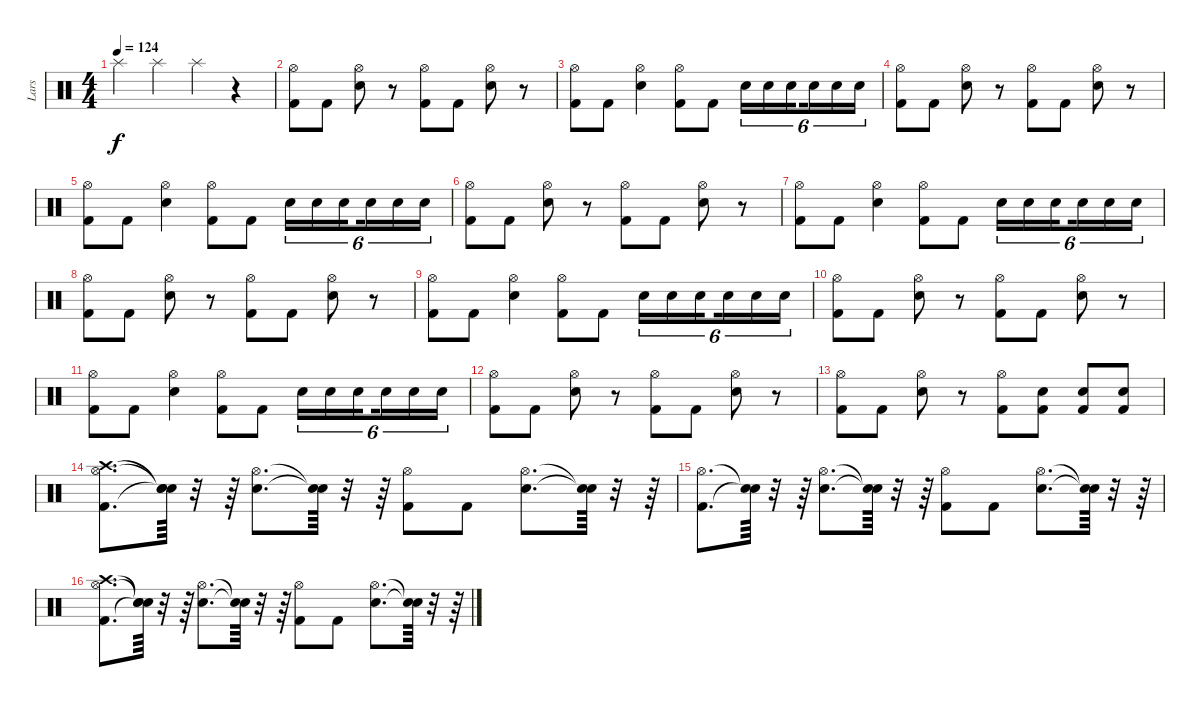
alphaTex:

\track ("Lars" "Lars") {instrument percussion}
\staff {score}
\articulation defaults
\ts (4 4)
\tempo 124
\clef neutral
\ks c "Splash (hit)".4{dy f} "Splash (hit)".4 "Splash (hit)".4
r.4 |
("Kick (hit) 2" "Hi-Hat (open)").8 "Kick (hit) 2".8 ("Snare (hit) 2" "Hi-Hat (open)").8 r.8 ("Kick (hit) 2" "Hi-Hat (open)").8 "Kick (hit) 2".8 ("Snare (hit) 2" "Hi-Hat (open)").8 r.8 |
("Kick (hit) 2" "Hi-Hat (open)").8 "Kick (hit) 2".8 ("Snare (hit) 2" "Hi-Hat (open)").4 ("Kick (hit) 2" "Hi-Hat (open)").8 "Kick (hit) 2".8 "Snare (hit) 2".16{tu (6 4)} "Snare (hit) 2".16{tu (6 4)} "Snare (hit) 2".16{tu (6 4) beam splitsecondary} "Snare (hit) 2".16{tu (6 4)} "Snare (hit) 2".16{tu (6 4)} "Snare (hit) 2".16{tu (6 4)} |
("Kick (hit) 2" "Hi-Hat (open)").8 "Kick (hit) 2".8 ("Snare (hit) 2" "Hi-Hat (open)").8 r.8 ("Kick (hit) 2" "Hi-Hat (open)").8 "Kick (hit) 2".8 ("Snare (hit) 2" "Hi-Hat (open)").8 r.8 |
("Kick (hit) 2" "Hi-Hat (open)").8 "Kick (hit) 2".8 ("Snare (hit) 2" "Hi-Hat (open)").4 ("Kick (hit) 2" "Hi-Hat (open)").8 "Kick (hit) 2".8 "Snare (hit) 2".16{tu (6 4)} "Snare (hit) 2".16{tu (6 4)} "Snare (hit) 2".16{tu (6 4) beam splitsecondary} "Snare (hit) 2".16{tu (6 4)} "Snare (hit) 2".16{tu (6 4)} "Snare (hit) 2".16{tu (6 4)} |
("Kick (hit) 2" "Hi-Hat (open)").8 "Kick (hit) 2".8 ("Snare (hit) 2" "Hi-Hat (open)").8 r.8 ("Kick (hit) 2" "Hi-Hat (open)").8 "Kick (hit) 2".8 ("Snare (hit) 2" "Hi-Hat (open)").8 r.8 |
("Kick (hit) 2" "Hi-Hat (open)").8 "Kick (hit) 2".8 ("Snare (hit) 2" "Hi-Hat (open)").4 ("Kick (hit) 2" "Hi-Hat (open)").8 "Kick (hit) 2".8 "Snare (hit) 2".16{tu (6 4)} "Snare (hit) 2".16{tu (6 4)} "Snare (hit) 2".16{tu (6 4) beam splitsecondary} "Snare (hit) 2".16{tu (6 4)} "Snare (hit) 2".16{tu (6 4)} "Snare (hit) 2".16{tu (6 4)} |
("Kick (hit) 2" "Hi-Hat (open)").8 "Kick (hit) 2".8 ("Snare (hit) 2" "Hi-Hat (open)").8 r.8 ("Kick (hit) 2" "Hi-Hat (open)").8 "Kick (hit) 2".8 ("Snare (hit) 2" "Hi-Hat (open)").8 r.8 |
("Kick (hit) 2" "Hi-Hat (open)").8 "Kick (hit) 2".8 ("Snare (hit) 2" "Hi-Hat (open)").4 ("Kick (hit) 2" "Hi-Hat (open)").8 "Kick (hit) 2".8 "Snare (hit) 2".16{tu (6 4)} "Snare (hit) 2".16{tu (6 4)} "Snare (hit) 2".16{tu (6 4) beam splitsecondary} "Snare (hit) 2".16{tu (6 4)} "Snare (hit) 2".16{tu (6 4)} "Snare (hit) 2".16{tu (6 4)} |
("Kick (hit) 2" "Hi-Hat (open)").8 "Kick (hit) 2".8 ("Snare (hit) 2" "Hi-Hat (open)").8 r.8 ("Kick (hit) 2" "Hi-Hat (open)").8 "Kick (hit) 2".8 ("Snare (hit) 2" "Hi-Hat (open)").8 r.8 |
("Kick (hit) 2" "Hi-Hat (open)").8 "Kick (hit) 2".8 ("Snare (hit) 2" "Hi-Hat (open)").4 ("Kick (hit) 2" "Hi-Hat (open)").8 "Kick (hit) 2".8 "Snare (hit) 2".16{tu (6 4)} "Snare (hit) 2".16{tu (6 4)} "Snare (hit) 2".16{tu (6 4) beam splitsecondary} "Snare (hit) 2".16{tu (6 4)} "Snare (hit) 2".16{tu (6 4)} "Snare (hit) 2".16{tu (6 4)} |
("Kick (hit) 2" "Hi-Hat (open)").8 "Kick (hit) 2".8 ("Snare (hit) 2" "Hi-Hat (open)").8 r.8 ("Kick (hit) 2" "Hi-Hat (open)").8 "Kick (hit) 2".8 ("Snare (hit) 2" "Hi-Hat (open)").8 r.8 |
("Kick (hit) 2" "Hi-Hat (open)").8 "Kick (hit) 2".8 ("Snare (hit) 2" "Hi-Hat (open)").8 r.8 ("Kick (hit) 2" "Hi-Hat (open)").8 ("Kick (hit) 2" "Snare (hit) 2").8 ("Kick (hit) 2" "Snare (hit) 2").8 ("Kick (hit) 2" "Snare (hit) 2").8 |
("Kick (hit) 2" "Hi-Hat (open)" "Crash high (hit)").8{d} ("Snare (hit)"{t} "Snare (hit)"{t} "Snare (hit)"{t}).64 r.32 r.64 ("Snare (hit) 2" "Hi-Hat (open)").8{d} ("Snare (hit)"{t} "Snare (hit)"{t}).64 r.32 r.64 ("Kick (hit) 2" "Hi-Hat (open)").8 "Kick (hit) 2".8 ("Snare (hit) 2" "Hi-Hat (open)").8{d} ("Snare (hit)"{t} "Snare (hit)"{t}).64 r.32 r.64 |
("Kick (hit) 2" "Hi-Hat (open)").8{d} ("Snare (hit)"{t} "Snare (hit)"{t}).64 r.32 r.64 ("Snare (hit) 2" "Hi-Hat (open)").8{d} ("Snare (hit)"{t} "Snare (hit)"{t}).64 r.32 r.64 ("Kick (hit) 2" "Hi-Hat (open)").8 "Kick (hit) 2".8 ("Snare (hit) 2" "Hi-Hat (open)").8{d} ("Snare (hit)"{t} "Snare (hit)"{t}).64 r.32 r.64 |
("Kick (hit) 2" "Hi-Hat (open)" "Crash high (hit)").8{d} ("Snare (hit)"{t} "Snare (hit)"{t} "Snare (hit)"{t}).64 r.32 r.64 ("Snare (hit) 2" "Hi-Hat (open)").8{d} ("Snare (hit)"{t} "Snare (hit)"{t}).64 r.32 r.64 ("Kick (hit) 2" "Hi-Hat (open)").8 "Kick (hit) 2".8 ("Snare (hit) 2" "Hi-Hat (open)").8{d} ("Snare (hit)"{t} "Snare (hit)"{t}).64 r.32 r.64
